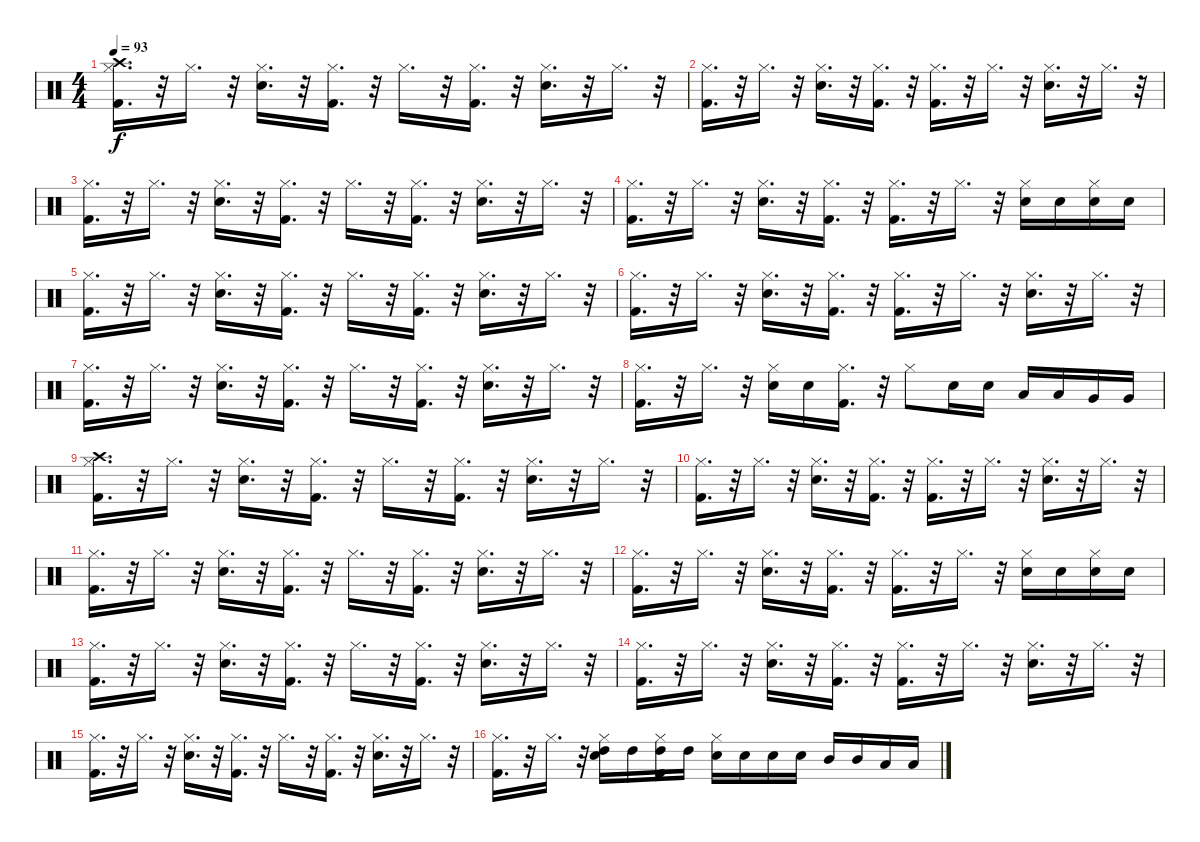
\track "" {instrument percussion}
\staff {score}
\articulation defaults
\ts (4 4)
\tempo 93
\clef neutral
\ks c
("Hi-Hat (closed)" "Crash high (hit)" "Kick (hit) 2").16{d dy f} r.32 "Hi-Hat (closed)".16{d} r.32 ("Hi-Hat (closed)" "Snare (hit) 2").16{d} r.32 ("Hi-Hat (closed)" "Kick (hit) 2").16{d} r.32 "Hi-Hat (closed)".16{d} r.32 ("Hi-Hat (closed)" "Kick (hit) 2").16{d} r.32 ("Hi-Hat (closed)" "Snare (hit) 2").16{d} r.32 "Hi-Hat (closed)".16{d} r.32 |
("Hi-Hat (closed)" "Kick (hit) 2").16{d} r.32 "Hi-Hat (closed)".16{d} r.32 ("Hi-Hat (closed)" "Snare (hit) 2").16{d} r.32 ("Hi-Hat (closed)" "Kick (hit) 2").16{d} r.32 ("Hi-Hat (closed)" "Kick (hit) 2").16{d} r.32 "Hi-Hat (closed)".16{d} r.32 ("Hi-Hat (closed)" "Snare (hit) 2").16{d} r.32 "Hi-Hat (closed)".16{d} r.32 |
("Hi-Hat (closed)" "Kick (hit) 2").16{d} r.32 "Hi-Hat (closed)".16{d} r.32 ("Hi-Hat (closed)" "Snare (hit) 2").16{d} r.32 ("Hi-Hat (closed)" "Kick (hit) 2").16{d} r.32 "Hi-Hat (closed)".16{d} r.32 ("Hi-Hat (closed)" "Kick (hit) 2").16{d} r.32 ("Hi-Hat (closed)" "Snare (hit) 2").16{d} r.32 "Hi-Hat (closed)".16{d} r.32 |
("Hi-Hat (closed)" "Kick (hit) 2").16{d} r.32 "Hi-Hat (closed)".16{d} r.32 ("Hi-Hat (closed)" "Snare (hit) 2").16{d} r.32 ("Hi-Hat (closed)" "Kick (hit) 2").16{d} r.32 ("Hi-Hat (closed)" "Kick (hit) 2").16{d} r.32 "Hi-Hat (closed)".16{d} r.32 ("Hi-Hat (closed)" "Snare (hit) 2").16 "Snare (hit) 2".16 ("Snare (hit) 2" "Hi-Hat (closed)").16 "Snare (hit) 2".16 |
("Hi-Hat (closed)" "Kick (hit) 2").16{d} r.32 "Hi-Hat (closed)".16{d} r.32 ("Hi-Hat (closed)" "Snare (hit) 2").16{d} r.32 ("Hi-Hat (closed)" "Kick (hit) 2").16{d} r.32 "Hi-Hat (closed)".16{d} r.32 ("Hi-Hat (closed)" "Kick (hit) 2").16{d} r.32 ("Hi-Hat (closed)" "Snare (hit) 2").16{d} r.32 "Hi-Hat (closed)".16{d} r.32 |
("Hi-Hat (closed)" "Kick (hit) 2").16{d} r.32 "Hi-Hat (closed)".16{d} r.32 ("Hi-Hat (closed)" "Snare (hit) 2").16{d} r.32 ("Hi-Hat (closed)" "Kick (hit) 2").16{d} r.32 ("Hi-Hat (closed)" "Kick (hit) 2").16{d} r.32 "Hi-Hat (closed)".16{d} r.32 ("Hi-Hat (closed)" "Snare (hit) 2").16{d} r.32 "Hi-Hat (closed)".16{d} r.32 |
("Hi-Hat (closed)" "Kick (hit) 2").16{d} r.32 "Hi-Hat (closed)".16{d} r.32 ("Hi-Hat (closed)" "Snare (hit) 2").16{d} r.32 ("Hi-Hat (closed)" "Kick (hit) 2").16{d} r.32 "Hi-Hat (closed)".16{d} r.32 ("Hi-Hat (closed)" "Kick (hit) 2").16{d} r.32 ("Hi-Hat (closed)" "Snare (hit) 2").16{d} r.32 "Hi-Hat (closed)".16{d} r.32 |
("Hi-Hat (closed)" "Kick (hit) 2").16{d} r.32 "Hi-Hat (closed)".16{d} r.32 ("Hi-Hat (closed)" "Snare (hit) 2").16 "Snare (hit) 2".16 ("Hi-Hat (closed)" "Kick (hit) 2").16{d} r.32 "Hi-Hat (closed)".8 "Snare (hit) 2".16 "Snare (hit) 2".16 "Low Tom (hit)".16 "Low Tom (hit)".16 "Very Low Tom (hit)".16 "Very Low Tom (hit)".16 |
("Hi-Hat (closed)" "Crash high (hit)" "Kick (hit) 2").16{d} r.32 "Hi-Hat (closed)".16{d} r.32 ("Hi-Hat (closed)" "Snare (hit) 2").16{d} r.32 ("Hi-Hat (closed)" "Kick (hit) 2").16{d} r.32 "Hi-Hat (closed)".16{d} r.32 ("Hi-Hat (closed)" "Kick (hit) 2").16{d} r.32 ("Hi-Hat (closed)" "Snare (hit) 2").16{d} r.32 "Hi-Hat (closed)".16{d} r.32 |
("Hi-Hat (closed)" "Kick (hit) 2").16{d} r.32 "Hi-Hat (closed)".16{d} r.32 ("Hi-Hat (closed)" "Snare (hit) 2").16{d} r.32 ("Hi-Hat (closed)" "Kick (hit) 2").16{d} r.32 ("Hi-Hat (closed)" "Kick (hit) 2").16{d} r.32 "Hi-Hat (closed)".16{d} r.32 ("Hi-Hat (closed)" "Snare (hit) 2").16{d} r.32 "Hi-Hat (closed)".16{d} r.32 |
("Hi-Hat (closed)" "Kick (hit) 2").16{d} r.32 "Hi-Hat (closed)".16{d} r.32 ("Hi-Hat (closed)" "Snare (hit) 2").16{d} r.32 ("Hi-Hat (closed)" "Kick (hit) 2").16{d} r.32 "Hi-Hat (closed)".16{d} r.32 ("Hi-Hat (closed)" "Kick (hit) 2").16{d} r.32 ("Hi-Hat (closed)" "Snare (hit) 2").16{d} r.32 "Hi-Hat (closed)".16{d} r.32 |
("Hi-Hat (closed)" "Kick (hit) 2").16{d} r.32 "Hi-Hat (closed)".16{d} r.32 ("Hi-Hat (closed)" "Snare (hit) 2").16{d} r.32 ("Hi-Hat (closed)" "Kick (hit) 2").16{d} r.32 ("Hi-Hat (closed)" "Kick (hit) 2").16{d} r.32 "Hi-Hat (closed)".16{d} r.32 ("Hi-Hat (closed)" "Snare (hit) 2").16 "Snare (hit) 2".16 ("Snare (hit) 2" "Hi-Hat (closed)").16 "Snare (hit) 2".16 |
("Hi-Hat (closed)" "Kick (hit) 2").16{d} r.32 "Hi-Hat (closed)".16{d} r.32 ("Hi-Hat (closed)" "Snare (hit) 2").16{d} r.32 ("Hi-Hat (closed)" "Kick (hit) 2").16{d} r.32 "Hi-Hat (closed)".16{d} r.32 ("Hi-Hat (closed)" "Kick (hit) 2").16{d} r.32 ("Hi-Hat (closed)" "Snare (hit) 2").16{d} r.32 "Hi-Hat (closed)".16{d} r.32 |
("Hi-Hat (closed)" "Kick (hit) 2").16{d} r.32 "Hi-Hat (closed)".16{d} r.32 ("Hi-Hat (closed)" "Snare (hit) 2").16{d} r.32 ("Hi-Hat (closed)" "Kick (hit) 2").16{d} r.32 ("Hi-Hat (closed)" "Kick (hit) 2").16{d} r.32 "Hi-Hat (closed)".16{d} r.32 ("Hi-Hat (closed)" "Snare (hit) 2").16{d} r.32 "Hi-Hat (closed)".16{d} r.32 |
("Hi-Hat (closed)" "Kick (hit) 2").16{d} r.32 "Hi-Hat (closed)".16{d} r.32 ("Hi-Hat (closed)" "Snare (hit) 2").16{d} r.32 ("Hi-Hat (closed)" "Kick (hit) 2").16{d} r.32 "Hi-Hat (closed)".16{d} r.32 ("Hi-Hat (closed)" "Kick (hit) 2").16{d} r.32 ("Hi-Hat (closed)" "Snare (hit) 2").16{d} r.32 "Hi-Hat (closed)".16{d} r.32 |
("Hi-Hat (closed)" "Kick (hit) 2").16{d} r.32 "Hi-Hat (closed)".16{d} r.32 ("High Tom (hit)" "Hi-Hat (closed)" "Snare (hit) 2").16 "High Tom (hit)".16 ("High Tom (hit)" "Hi-Hat (closed)" "Kick (hit) 2").16 "High Tom (hit)".16 ("Snare (hit) 2" "Hi-Hat (closed)").16 "Snare (hit) 2".16 "Snare (hit) 2".16 "Snare (hit) 2".16 "Mid Tom (hit)".16 "Mid Tom (hit)".16 "Low Tom (hit)".16 "Low Tom (hit)".16
